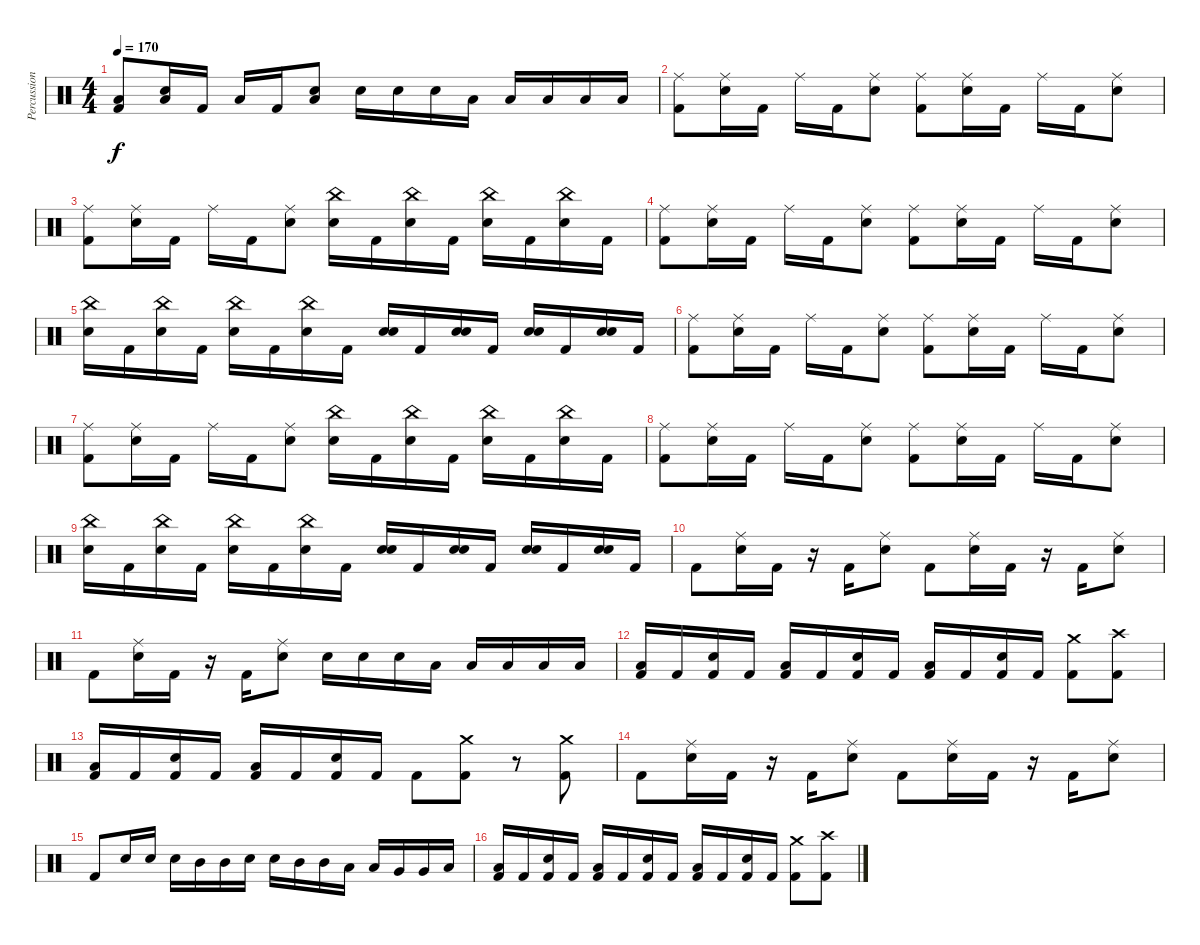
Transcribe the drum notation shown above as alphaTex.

\track ("Percussion" "Percussion") {instrument percussion}
\staff {score}
\articulation defaults
\ts (4 4)
\tempo 170
\clef neutral
\ks c
("Low Floor Tom (hit)" "Kick (hit) 2").8{dy f} ("Low Floor Tom (hit)" "Snare (hit) 2").16 "Kick (hit) 2".16 "Low Floor Tom (hit)".16 "Kick (hit) 2".16 ("Low Floor Tom (hit)" "Snare (hit) 2").8 "Snare (hit) 2".16 "Snare (hit) 2".16 "Snare (hit) 2".16 "Low Floor Tom (hit)".16 "Low Floor Tom (hit)".16 "Low Floor Tom (hit)".16 "Low Floor Tom (hit)".16 "Low Floor Tom (hit)".16 |
("Ride (middle)" "Kick (hit) 2").8 ("Ride (middle)" "Snare (hit) 2").16 "Kick (hit) 2".16 "Ride (middle)".16 "Kick (hit) 2".16 ("Ride (middle)" "Snare (hit) 2").8 ("Ride (middle)" "Kick (hit) 2").8 ("Ride (middle)" "Snare (hit) 2").16 "Kick (hit) 2".16 "Ride (middle)".16 "Kick (hit) 2".16 ("Ride (middle)" "Snare (hit) 2").8 |
("Ride (middle)" "Kick (hit) 2").8 ("Ride (middle)" "Snare (hit) 2").16 "Kick (hit) 2".16 "Ride (middle)".16 "Kick (hit) 2".16 ("Ride (middle)" "Snare (hit) 2").8 ("China (hit)" "Snare (hit) 2").16 "Kick (hit) 2".16 ("China (hit)" "Snare (hit) 2").16 "Kick (hit) 2".16 ("China (hit)" "Snare (hit) 2").16 "Kick (hit) 2".16 ("China (hit)" "Snare (hit) 2").16 "Kick (hit) 2".16 |
("Ride (middle)" "Kick (hit) 2").8 ("Ride (middle)" "Snare (hit) 2").16 "Kick (hit) 2".16 "Ride (middle)".16 "Kick (hit) 2".16 ("Ride (middle)" "Snare (hit) 2").8 ("Ride (middle)" "Kick (hit) 2").8 ("Ride (middle)" "Snare (hit) 2").16 "Kick (hit) 2".16 "Ride (middle)".16 "Kick (hit) 2".16 ("Ride (middle)" "Snare (hit) 2").8 |
("China (hit)" "Snare (hit) 2").16 "Kick (hit) 2".16 ("China (hit)" "Snare (hit) 2").16 "Kick (hit) 2".16 ("China (hit)" "Snare (hit) 2").16 "Kick (hit) 2".16 ("China (hit)" "Snare (hit) 2").16 "Kick (hit) 2".16 ("Snare (hit)" "Snare (hit) 2").16 "Kick (hit) 2".16 ("Snare (hit)" "Snare (hit) 2").16 "Kick (hit) 2".16 ("Snare (hit)" "Snare (hit) 2").16 "Kick (hit) 2".16 ("Snare (hit)" "Snare (hit) 2").16 "Kick (hit) 2".16 |
("Ride (middle)" "Kick (hit) 2").8 ("Ride (middle)" "Snare (hit) 2").16 "Kick (hit) 2".16 "Ride (middle)".16 "Kick (hit) 2".16 ("Ride (middle)" "Snare (hit) 2").8 ("Ride (middle)" "Kick (hit) 2").8 ("Ride (middle)" "Snare (hit) 2").16 "Kick (hit) 2".16 "Ride (middle)".16 "Kick (hit) 2".16 ("Ride (middle)" "Snare (hit) 2").8 |
("Ride (middle)" "Kick (hit) 2").8 ("Ride (middle)" "Snare (hit) 2").16 "Kick (hit) 2".16 "Ride (middle)".16 "Kick (hit) 2".16 ("Ride (middle)" "Snare (hit) 2").8 ("China (hit)" "Snare (hit) 2").16 "Kick (hit) 2".16 ("China (hit)" "Snare (hit) 2").16 "Kick (hit) 2".16 ("China (hit)" "Snare (hit) 2").16 "Kick (hit) 2".16 ("China (hit)" "Snare (hit) 2").16 "Kick (hit) 2".16 |
("Ride (middle)" "Kick (hit) 2").8 ("Ride (middle)" "Snare (hit) 2").16 "Kick (hit) 2".16 "Ride (middle)".16 "Kick (hit) 2".16 ("Ride (middle)" "Snare (hit) 2").8 ("Ride (middle)" "Kick (hit) 2").8 ("Ride (middle)" "Snare (hit) 2").16 "Kick (hit) 2".16 "Ride (middle)".16 "Kick (hit) 2".16 ("Ride (middle)" "Snare (hit) 2").8 |
("China (hit)" "Snare (hit) 2").16 "Kick (hit) 2".16 ("China (hit)" "Snare (hit) 2").16 "Kick (hit) 2".16 ("China (hit)" "Snare (hit) 2").16 "Kick (hit) 2".16 ("China (hit)" "Snare (hit) 2").16 "Kick (hit) 2".16 ("Snare (hit)" "Snare (hit) 2").16 "Kick (hit) 2".16 ("Snare (hit)" "Snare (hit) 2").16 "Kick (hit) 2".16 ("Snare (hit)" "Snare (hit) 2").16 "Kick (hit) 2".16 ("Snare (hit)" "Snare (hit) 2").16 "Kick (hit) 2".16 |
"Kick (hit) 2".8 ("Ride (middle)" "Snare (hit) 2").16 "Kick (hit) 2".16 r.16 "Kick (hit) 2".16 ("Ride (middle)" "Snare (hit) 2").8 "Kick (hit) 2".8 ("Ride (middle)" "Snare (hit) 2").16 "Kick (hit) 2".16 r.16 "Kick (hit) 2".16 ("Ride (middle)" "Snare (hit) 2").8 |
"Kick (hit) 2".8 ("Ride (middle)" "Snare (hit) 2").16 "Kick (hit) 2".16 r.16 "Kick (hit) 2".16 ("Ride (middle)" "Snare (hit) 2").8 "Snare (hit) 2".16 "Snare (hit) 2".16 "Snare (hit) 2".16 "Low Floor Tom (hit)".16 "Low Floor Tom (hit)".16 "Low Floor Tom (hit)".16 "Low Floor Tom (hit)".16 "Low Floor Tom (hit)".16 |
("Low Floor Tom (hit)" "Kick (hit) 2").16 "Kick (hit) 2".16 ("Snare (hit) 2" "Kick (hit) 2").16 "Kick (hit) 2".16 ("Low Floor Tom (hit)" "Kick (hit) 2").16 "Kick (hit) 2".16 ("Snare (hit) 2" "Kick (hit) 2").16 "Kick (hit) 2".16 ("Low Floor Tom (hit)" "Kick (hit) 2").16 "Kick (hit) 2".16 ("Snare (hit) 2" "Kick (hit) 2").16 "Kick (hit) 2".16 ("Crash medium (hit)" "Kick (hit) 2").8 ("Crash high (hit)" "Kick (hit) 2").8 |
("Low Floor Tom (hit)" "Kick (hit) 2").16 "Kick (hit) 2".16 ("Snare (hit) 2" "Kick (hit) 2").16 "Kick (hit) 2".16 ("Low Floor Tom (hit)" "Kick (hit) 2").16 "Kick (hit) 2".16 ("Snare (hit) 2" "Kick (hit) 2").16 "Kick (hit) 2".16 "Kick (hit) 2".8 ("Crash medium (hit)" "Kick (hit) 2").8 r.8 ("Crash medium (hit)" "Kick (hit) 2").8 |
"Kick (hit) 2".8 ("Ride (middle)" "Snare (hit) 2").16 "Kick (hit) 2".16 r.16 "Kick (hit) 2".16 ("Ride (middle)" "Snare (hit) 2").8 "Kick (hit) 2".8 ("Ride (middle)" "Snare (hit) 2").16 "Kick (hit) 2".16 r.16 "Kick (hit) 2".16 ("Ride (middle)" "Snare (hit) 2").8 |
"Kick (hit) 2".8 "Snare (hit) 2".16 "Snare (hit) 2".16 "Snare (hit) 2".16 "Mid Tom (hit)".16 "Mid Tom (hit)".16 "Snare (hit) 2".16 "Snare (hit) 2".16 "Mid Tom (hit)".16 "Mid Tom (hit)".16 "Low Tom (hit)".16 "Low Tom (hit)".16 "Very Low Tom (hit)".16 "Very Low Tom (hit)".16 "Low Floor Tom (hit)".16 |
("Low Floor Tom (hit)" "Kick (hit) 2").16 "Kick (hit) 2".16 ("Snare (hit) 2" "Kick (hit) 2").16 "Kick (hit) 2".16 ("Low Floor Tom (hit)" "Kick (hit) 2").16 "Kick (hit) 2".16 ("Snare (hit) 2" "Kick (hit) 2").16 "Kick (hit) 2".16 ("Low Floor Tom (hit)" "Kick (hit) 2").16 "Kick (hit) 2".16 ("Snare (hit) 2" "Kick (hit) 2").16 "Kick (hit) 2".16 ("Crash medium (hit)" "Kick (hit) 2").8 ("Crash high (hit)" "Kick (hit) 2").8
